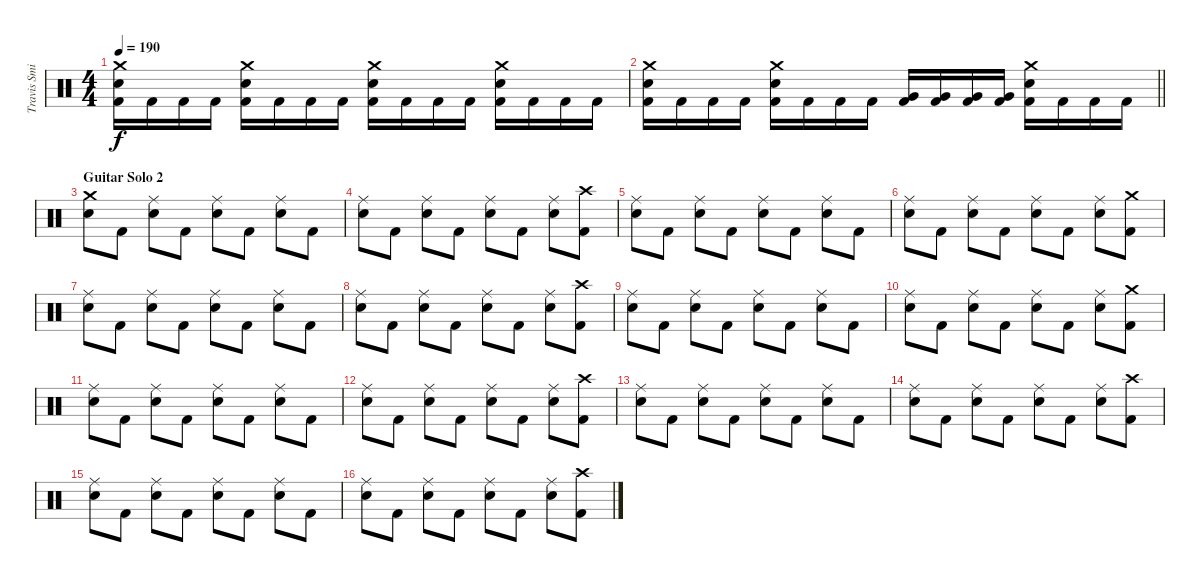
\track ("Travis Smith" "Travis Smi") {instrument percussion}
\staff {score}
\articulation defaults
\ts (4 4)
\tempo 190
\clef neutral
\ks c
("Crash medium (hit)" "Electric Snare (hit)" "Kick (hit) 2").16{dy f} "Kick (hit) 2".16 "Kick (hit) 2".16 "Kick (hit) 2".16 ("Crash medium (hit)" "Electric Snare (hit)" "Kick (hit) 2").16 "Kick (hit) 2".16 "Kick (hit) 2".16 "Kick (hit) 2".16 ("Crash medium (hit)" "Electric Snare (hit)" "Kick (hit) 2").16 "Kick (hit) 2".16 "Kick (hit) 2".16 "Kick (hit) 2".16 ("Crash medium (hit)" "Electric Snare (hit)" "Kick (hit) 2").16 "Kick (hit) 2".16 "Kick (hit) 2".16 "Kick (hit) 2".16 |
\barLineRight lightlight
("Crash medium (hit)" "Electric Snare (hit)" "Kick (hit) 2").16 "Kick (hit) 2".16 "Kick (hit) 2".16 "Kick (hit) 2".16 ("Crash medium (hit)" "Electric Snare (hit)" "Kick (hit) 2").16 "Kick (hit) 2".16 "Kick (hit) 2".16 "Kick (hit) 2".16 ("Very Low Tom (hit)" "Kick (hit) 2").16 ("Very Low Tom (hit)" "Kick (hit) 2").16 ("Very Low Tom (hit)" "Kick (hit) 2").16 ("Very Low Tom (hit)" "Kick (hit) 2").16 ("Crash medium (hit)" "Electric Snare (hit)" "Kick (hit) 2").16 "Kick (hit) 2".16 "Kick (hit) 2".16 "Kick (hit) 2".16 |
\section ("" "Guitar Solo 2")
("Crash medium (hit)" "Electric Snare (hit)").8 "Kick (hit) 2".8 ("Ride (middle)" "Electric Snare (hit)").8 "Kick (hit) 2".8 ("Ride (middle)" "Electric Snare (hit)").8 "Kick (hit) 2".8 ("Ride (middle)" "Electric Snare (hit)").8 "Kick (hit) 2".8 |
("Ride (middle)" "Electric Snare (hit)").8 "Kick (hit) 2".8 ("Ride (middle)" "Electric Snare (hit)").8 "Kick (hit) 2".8 ("Ride (middle)" "Electric Snare (hit)").8 "Kick (hit) 2".8 ("Ride (middle)" "Electric Snare (hit)").8 ("Crash high (hit)" "Kick (hit) 2").8 |
("Ride (middle)" "Electric Snare (hit)").8 "Kick (hit) 2".8 ("Ride (middle)" "Electric Snare (hit)").8 "Kick (hit) 2".8 ("Ride (middle)" "Electric Snare (hit)").8 "Kick (hit) 2".8 ("Ride (middle)" "Electric Snare (hit)").8 "Kick (hit) 2".8 |
("Ride (middle)" "Electric Snare (hit)").8 "Kick (hit) 2".8 ("Ride (middle)" "Electric Snare (hit)").8 "Kick (hit) 2".8 ("Ride (middle)" "Electric Snare (hit)").8 "Kick (hit) 2".8 ("Ride (middle)" "Electric Snare (hit)").8 ("Crash medium (hit)" "Kick (hit) 2").8 |
("Ride (middle)" "Electric Snare (hit)").8 "Kick (hit) 2".8 ("Ride (middle)" "Electric Snare (hit)").8 "Kick (hit) 2".8 ("Ride (middle)" "Electric Snare (hit)").8 "Kick (hit) 2".8 ("Ride (middle)" "Electric Snare (hit)").8 "Kick (hit) 2".8 |
("Ride (middle)" "Electric Snare (hit)").8 "Kick (hit) 2".8 ("Ride (middle)" "Electric Snare (hit)").8 "Kick (hit) 2".8 ("Ride (middle)" "Electric Snare (hit)").8 "Kick (hit) 2".8 ("Ride (middle)" "Electric Snare (hit)").8 ("Crash high (hit)" "Kick (hit) 2").8 |
("Ride (middle)" "Electric Snare (hit)").8 "Kick (hit) 2".8 ("Ride (middle)" "Electric Snare (hit)").8 "Kick (hit) 2".8 ("Ride (middle)" "Electric Snare (hit)").8 "Kick (hit) 2".8 ("Ride (middle)" "Electric Snare (hit)").8 "Kick (hit) 2".8 |
("Ride (middle)" "Electric Snare (hit)").8 "Kick (hit) 2".8 ("Ride (middle)" "Electric Snare (hit)").8 "Kick (hit) 2".8 ("Ride (middle)" "Electric Snare (hit)").8 "Kick (hit) 2".8 ("Ride (middle)" "Electric Snare (hit)").8 ("Crash medium (hit)" "Kick (hit) 2").8 |
("Ride (middle)" "Electric Snare (hit)").8 "Kick (hit) 2".8 ("Ride (middle)" "Electric Snare (hit)").8 "Kick (hit) 2".8 ("Ride (middle)" "Electric Snare (hit)").8 "Kick (hit) 2".8 ("Ride (middle)" "Electric Snare (hit)").8 "Kick (hit) 2".8 |
("Ride (middle)" "Electric Snare (hit)").8 "Kick (hit) 2".8 ("Ride (middle)" "Electric Snare (hit)").8 "Kick (hit) 2".8 ("Ride (middle)" "Electric Snare (hit)").8 "Kick (hit) 2".8 ("Ride (middle)" "Electric Snare (hit)").8 ("Crash high (hit)" "Kick (hit) 2").8 |
("Ride (middle)" "Electric Snare (hit)").8 "Kick (hit) 2".8 ("Ride (middle)" "Electric Snare (hit)").8 "Kick (hit) 2".8 ("Ride (middle)" "Electric Snare (hit)").8 "Kick (hit) 2".8 ("Ride (middle)" "Electric Snare (hit)").8 "Kick (hit) 2".8 |
("Ride (middle)" "Electric Snare (hit)").8 "Kick (hit) 2".8 ("Ride (middle)" "Electric Snare (hit)").8 "Kick (hit) 2".8 ("Ride (middle)" "Electric Snare (hit)").8 "Kick (hit) 2".8 ("Ride (middle)" "Electric Snare (hit)").8 ("Crash high (hit)" "Kick (hit) 2").8 |
("Ride (middle)" "Electric Snare (hit)").8 "Kick (hit) 2".8 ("Ride (middle)" "Electric Snare (hit)").8 "Kick (hit) 2".8 ("Ride (middle)" "Electric Snare (hit)").8 "Kick (hit) 2".8 ("Ride (middle)" "Electric Snare (hit)").8 "Kick (hit) 2".8 |
("Ride (middle)" "Electric Snare (hit)").8 "Kick (hit) 2".8 ("Ride (middle)" "Electric Snare (hit)").8 "Kick (hit) 2".8 ("Ride (middle)" "Electric Snare (hit)").8 "Kick (hit) 2".8 ("Ride (middle)" "Electric Snare (hit)").8 ("Crash high (hit)" "Kick (hit) 2").8
